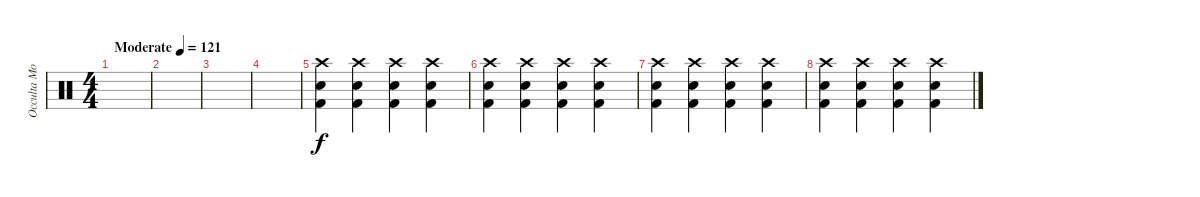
\track ("Occulta Mors" "Occulta Mo") {instrument percussion}
\staff {score}
\articulation defaults
\ts (4 4)
\tempo (121 "Moderate")
\clef neutral
\ks c
|
|
|
|
("Crash high (hit)" "Kick (hit) 2" "Snare (hit) 2").4 ("Crash high (hit)" "Kick (hit) 2" "Snare (hit) 2").4 ("Crash high (hit)" "Kick (hit) 2" "Snare (hit) 2").4 ("Crash high (hit)" "Kick (hit) 2" "Snare (hit) 2").4 |
("Crash high (hit)" "Kick (hit) 2" "Snare (hit) 2").4 ("Crash high (hit)" "Kick (hit) 2" "Snare (hit) 2").4 ("Crash high (hit)" "Kick (hit) 2" "Snare (hit) 2").4 ("Crash high (hit)" "Kick (hit) 2" "Snare (hit) 2").4 |
("Crash high (hit)" "Kick (hit) 2" "Snare (hit) 2").4 ("Crash high (hit)" "Kick (hit) 2" "Snare (hit) 2").4 ("Crash high (hit)" "Kick (hit) 2" "Snare (hit) 2").4 ("Crash high (hit)" "Kick (hit) 2" "Snare (hit) 2").4 |
("Crash high (hit)" "Kick (hit) 2" "Snare (hit) 2").4 ("Crash high (hit)" "Kick (hit) 2" "Snare (hit) 2").4 ("Crash high (hit)" "Kick (hit) 2" "Snare (hit) 2").4 ("Crash high (hit)" "Kick (hit) 2" "Snare (hit) 2").4
